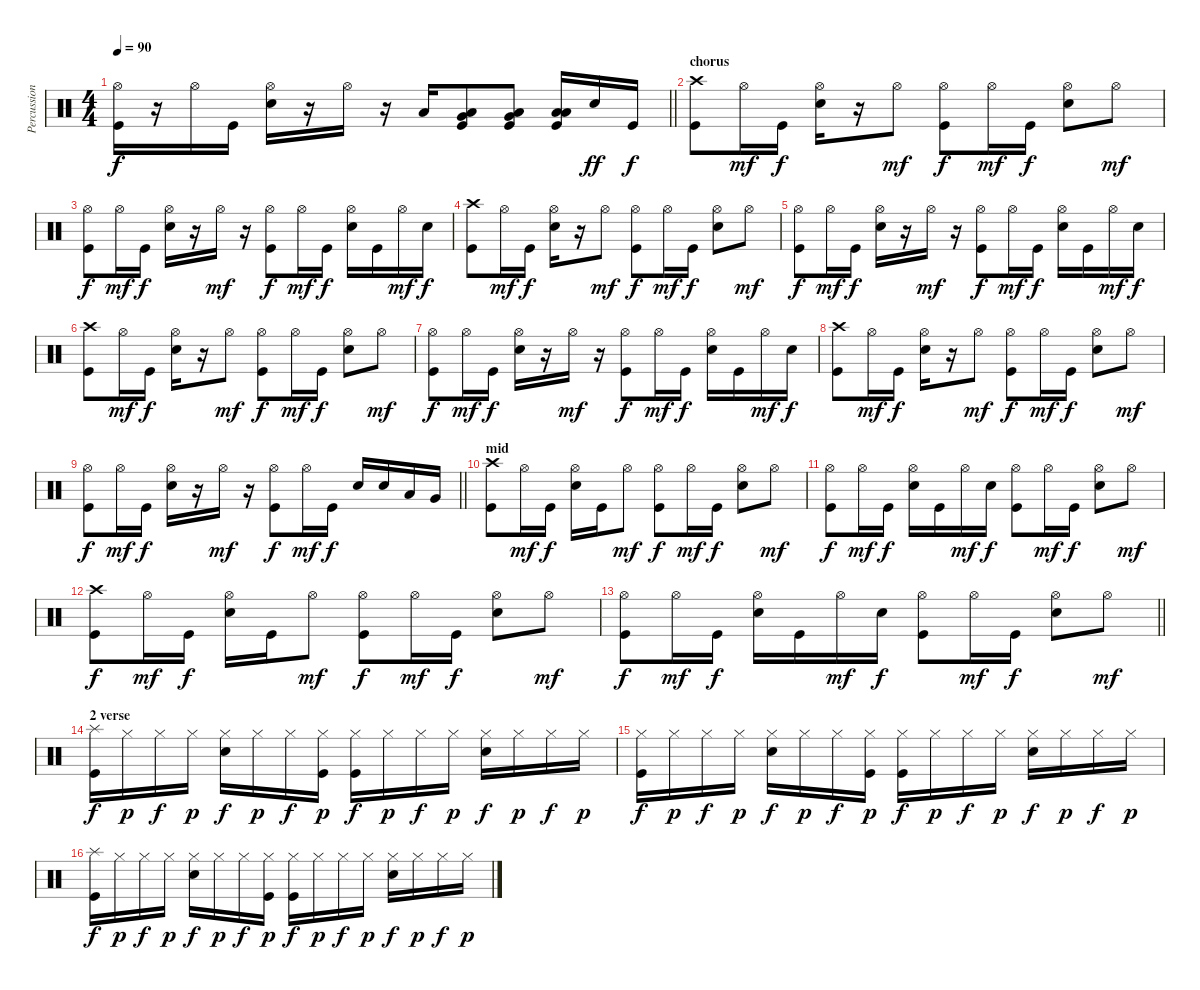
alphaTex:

\track ("Percussion" "Percussion") {instrument percussion}
\staff {score}
\articulation defaults
\ts (4 4)
\tempo 90
\clef neutral
\barLineRight lightlight
\ks c
("Hi-Hat (open)" "Kick (hit)").16{dy f} r.16 "Hi-Hat (open)".16 "Kick (hit)".16 ("Hi-Hat (open)" "Snare (hit) 2").16 r.16 "Hi-Hat (open)".16 r.16 "Low Tom (hit)".16 ("Low Floor Tom (hit)" "Very Low Tom (hit)" "Kick (hit)").8 ("Low Floor Tom (hit)" "Very Low Tom (hit)" "Kick (hit)").8 ("Low Floor Tom (hit)" "Low Floor Tom (hit)" "Kick (hit)").16 "Snare (hit) 2".16{dy ff} "Kick (hit)".16{dy f} |
\section ("" "chorus")
("Crash high (hit)" "Kick (hit)").8 "Hi-Hat (open)".16{dy mf} "Kick (hit)".16{dy f} ("Hi-Hat (open)" "Snare (hit) 2").16 r.16 "Hi-Hat (open)".8{dy mf} ("Hi-Hat (open)" "Kick (hit)").8{dy f} "Hi-Hat (open)".16{dy mf} "Kick (hit)".16{dy f} ("Hi-Hat (open)" "Snare (hit) 2").8 "Hi-Hat (open)".8{dy mf} |
("Hi-Hat (open)" "Kick (hit)").8{dy f} "Hi-Hat (open)".16{dy mf} "Kick (hit)".16{dy f} ("Hi-Hat (open)" "Snare (hit) 2").16 r.16 "Hi-Hat (open)".16{dy mf} r.16 ("Hi-Hat (open)" "Kick (hit)").8{dy f} "Hi-Hat (open)".16{dy mf} "Kick (hit)".16{dy f} ("Hi-Hat (open)" "Snare (hit) 2").16 "Kick (hit)".16 "Hi-Hat (open)".16{dy mf} "Snare (hit) 2".16{dy f} |
("Crash high (hit)" "Kick (hit)").8 "Hi-Hat (open)".16{dy mf} "Kick (hit)".16{dy f} ("Hi-Hat (open)" "Snare (hit) 2").16 r.16 "Hi-Hat (open)".8{dy mf} ("Hi-Hat (open)" "Kick (hit)").8{dy f} "Hi-Hat (open)".16{dy mf} "Kick (hit)".16{dy f} ("Hi-Hat (open)" "Snare (hit) 2").8 "Hi-Hat (open)".8{dy mf} |
("Hi-Hat (open)" "Kick (hit)").8{dy f} "Hi-Hat (open)".16{dy mf} "Kick (hit)".16{dy f} ("Hi-Hat (open)" "Snare (hit) 2").16 r.16 "Hi-Hat (open)".16{dy mf} r.16 ("Hi-Hat (open)" "Kick (hit)").8{dy f} "Hi-Hat (open)".16{dy mf} "Kick (hit)".16{dy f} ("Hi-Hat (open)" "Snare (hit) 2").16 "Kick (hit)".16 "Hi-Hat (open)".16{dy mf} "Snare (hit) 2".16{dy f} |
("Crash high (hit)" "Kick (hit)").8 "Hi-Hat (open)".16{dy mf} "Kick (hit)".16{dy f} ("Hi-Hat (open)" "Snare (hit) 2").16 r.16 "Hi-Hat (open)".8{dy mf} ("Hi-Hat (open)" "Kick (hit)").8{dy f} "Hi-Hat (open)".16{dy mf} "Kick (hit)".16{dy f} ("Hi-Hat (open)" "Snare (hit) 2").8 "Hi-Hat (open)".8{dy mf} |
("Hi-Hat (open)" "Kick (hit)").8{dy f} "Hi-Hat (open)".16{dy mf} "Kick (hit)".16{dy f} ("Hi-Hat (open)" "Snare (hit) 2").16 r.16 "Hi-Hat (open)".16{dy mf} r.16 ("Hi-Hat (open)" "Kick (hit)").8{dy f} "Hi-Hat (open)".16{dy mf} "Kick (hit)".16{dy f} ("Hi-Hat (open)" "Snare (hit) 2").16 "Kick (hit)".16 "Hi-Hat (open)".16{dy mf} "Snare (hit) 2".16{dy f} |
("Crash high (hit)" "Kick (hit)").8 "Hi-Hat (open)".16{dy mf} "Kick (hit)".16{dy f} ("Hi-Hat (open)" "Snare (hit) 2").16 r.16 "Hi-Hat (open)".8{dy mf} ("Hi-Hat (open)" "Kick (hit)").8{dy f} "Hi-Hat (open)".16{dy mf} "Kick (hit)".16{dy f} ("Hi-Hat (open)" "Snare (hit) 2").8 "Hi-Hat (open)".8{dy mf} |
\barLineRight lightlight
("Hi-Hat (open)" "Kick (hit)").8{dy f} "Hi-Hat (open)".16{dy mf} "Kick (hit)".16{dy f} ("Hi-Hat (open)" "Snare (hit) 2").16 r.16 "Hi-Hat (open)".16{dy mf} r.16 ("Hi-Hat (open)" "Kick (hit)").8{dy f} "Hi-Hat (open)".16{dy mf} "Kick (hit)".16{dy f} "Snare (hit) 2".16 "Snare (hit) 2".16 "Low Tom (hit)".16 "Very Low Tom (hit)".16 |
\section ("" "mid")
("Crash high (hit)" "Kick (hit)").8 "Hi-Hat (open)".16{dy mf} "Kick (hit)".16{dy f} ("Hi-Hat (open)" "Snare (hit) 2").16 "Kick (hit)".16 "Hi-Hat (open)".8{dy mf} ("Hi-Hat (open)" "Kick (hit)").8{dy f} "Hi-Hat (open)".16{dy mf} "Kick (hit)".16{dy f} ("Hi-Hat (open)" "Snare (hit) 2").8 "Hi-Hat (open)".8{dy mf} |
("Hi-Hat (open)" "Kick (hit)").8{dy f} "Hi-Hat (open)".16{dy mf} "Kick (hit)".16{dy f} ("Hi-Hat (open)" "Snare (hit) 2").16 "Kick (hit)".16 "Hi-Hat (open)".16{dy mf} "Snare (hit) 2".16{dy f} ("Hi-Hat (open)" "Kick (hit)").8 "Hi-Hat (open)".16{dy mf} "Kick (hit)".16{dy f} ("Hi-Hat (open)" "Snare (hit) 2").8 "Hi-Hat (open)".8{dy mf} |
("Crash high (hit)" "Kick (hit)").8{dy f} "Hi-Hat (open)".16{dy mf} "Kick (hit)".16{dy f} ("Hi-Hat (open)" "Snare (hit) 2").16 "Kick (hit)".16 "Hi-Hat (open)".8{dy mf} ("Hi-Hat (open)" "Kick (hit)").8{dy f} "Hi-Hat (open)".16{dy mf} "Kick (hit)".16{dy f} ("Hi-Hat (open)" "Snare (hit) 2").8 "Hi-Hat (open)".8{dy mf} |
\barLineRight lightlight
("Hi-Hat (open)" "Kick (hit)").8{dy f} "Hi-Hat (open)".16{dy mf} "Kick (hit)".16{dy f} ("Hi-Hat (open)" "Snare (hit) 2").16 "Kick (hit)".16 "Hi-Hat (open)".16{dy mf} "Snare (hit) 2".16{dy f} ("Hi-Hat (open)" "Kick (hit)").8 "Hi-Hat (open)".16{dy mf} "Kick (hit)".16{dy f} ("Hi-Hat (open)" "Snare (hit) 2").8 "Hi-Hat (open)".8{dy mf} |
\section ("" "2 verse")
("Splash (hit)" "Kick (hit)").16{dy f} "Hi-Hat (closed)".16{dy p} "Hi-Hat (closed)".16{dy f} "Hi-Hat (closed)".16{dy p} ("Hi-Hat (closed)" "Electric Snare (hit)").16{dy f} "Hi-Hat (closed)".16{dy p} "Hi-Hat (closed)".16{dy f} ("Hi-Hat (closed)" "Kick (hit)").16{dy p} ("Hi-Hat (closed)" "Kick (hit)").16{dy f} "Hi-Hat (closed)".16{dy p} "Hi-Hat (closed)".16{dy f} "Hi-Hat (closed)".16{dy p} ("Hi-Hat (closed)" "Electric Snare (hit)").16{dy f} "Hi-Hat (closed)".16{dy p} "Hi-Hat (closed)".16{dy f} "Hi-Hat (closed)".16{dy p} |
("Hi-Hat (closed)" "Kick (hit)").16{dy f} "Hi-Hat (closed)".16{dy p} "Hi-Hat (closed)".16{dy f} "Hi-Hat (closed)".16{dy p} ("Hi-Hat (closed)" "Electric Snare (hit)").16{dy f} "Hi-Hat (closed)".16{dy p} "Hi-Hat (closed)".16{dy f} ("Hi-Hat (closed)" "Kick (hit)").16{dy p} ("Hi-Hat (closed)" "Kick (hit)").16{dy f} "Hi-Hat (closed)".16{dy p} "Hi-Hat (closed)".16{dy f} "Hi-Hat (closed)".16{dy p} ("Hi-Hat (closed)" "Electric Snare (hit)").16{dy f} "Hi-Hat (closed)".16{dy p} "Hi-Hat (closed)".16{dy f} "Hi-Hat (closed)".16{dy p} |
("Splash (hit)" "Kick (hit)").16{dy f} "Hi-Hat (closed)".16{dy p} "Hi-Hat (closed)".16{dy f} "Hi-Hat (closed)".16{dy p} ("Hi-Hat (closed)" "Electric Snare (hit)").16{dy f} "Hi-Hat (closed)".16{dy p} "Hi-Hat (closed)".16{dy f} ("Hi-Hat (closed)" "Kick (hit)").16{dy p} ("Hi-Hat (closed)" "Kick (hit)").16{dy f} "Hi-Hat (closed)".16{dy p} "Hi-Hat (closed)".16{dy f} "Hi-Hat (closed)".16{dy p} ("Hi-Hat (closed)" "Electric Snare (hit)").16{dy f} "Hi-Hat (closed)".16{dy p} "Hi-Hat (closed)".16{dy f} "Hi-Hat (closed)".16{dy p}
